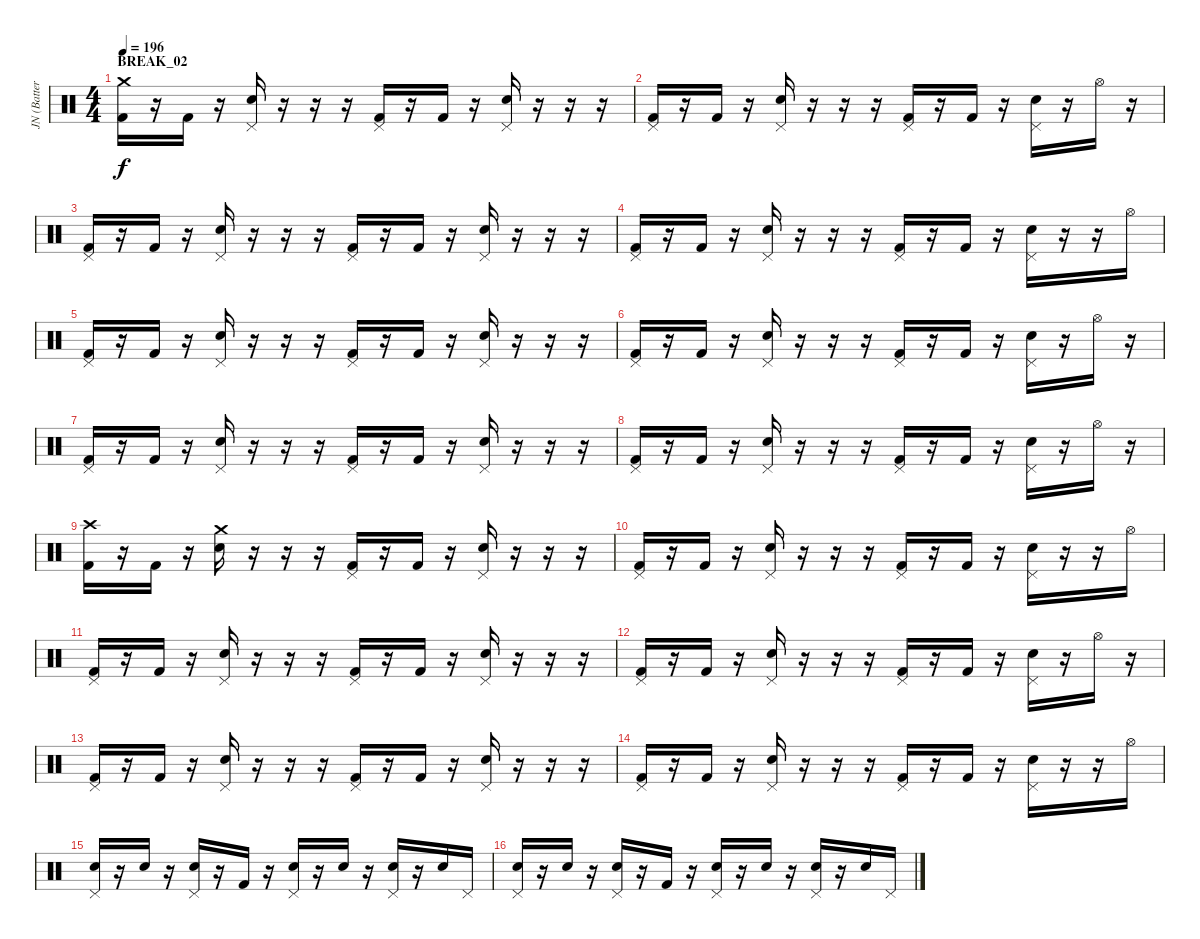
\track ("JN (Batterie)" "JN (Batter") {instrument percussion}
\staff {score}
\articulation defaults
\ts (4 4)
\section ("" "BREAK_02")
\tempo 196
\clef neutral
\ks c
("Crash medium (hit)" "Kick (hit) 2").16{dy f} r.16 "Kick (hit) 2".16 r.16 ("Pedal Hi-Hat (hit)" "Electric Snare (hit)").16 r.16 r.16 r.16 ("Pedal Hi-Hat (hit)" "Kick (hit) 2").16 r.16 "Kick (hit) 2".16 r.16 ("Pedal Hi-Hat (hit)" "Electric Snare (hit)").16 r.16 r.16 r.16 |
("Pedal Hi-Hat (hit)" "Kick (hit) 2").16 r.16 "Kick (hit) 2".16 r.16 ("Pedal Hi-Hat (hit)" "Electric Snare (hit)").16 r.16 r.16 r.16 ("Pedal Hi-Hat (hit)" "Kick (hit) 2").16 r.16 "Kick (hit) 2".16 r.16 ("Pedal Hi-Hat (hit)" "Electric Snare (hit)").16 r.16 "Hi-Hat (open)".16 r.16 |
("Pedal Hi-Hat (hit)" "Kick (hit) 2").16 r.16 "Kick (hit) 2".16 r.16 ("Pedal Hi-Hat (hit)" "Electric Snare (hit)").16 r.16 r.16 r.16 ("Pedal Hi-Hat (hit)" "Kick (hit) 2").16 r.16 "Kick (hit) 2".16 r.16 ("Pedal Hi-Hat (hit)" "Electric Snare (hit)").16 r.16 r.16 r.16 |
("Pedal Hi-Hat (hit)" "Kick (hit) 2").16 r.16 "Kick (hit) 2".16 r.16 ("Pedal Hi-Hat (hit)" "Electric Snare (hit)").16 r.16 r.16 r.16 ("Pedal Hi-Hat (hit)" "Kick (hit) 2").16 r.16 "Kick (hit) 2".16 r.16 ("Pedal Hi-Hat (hit)" "Electric Snare (hit)").16 r.16 r.16 "Hi-Hat (open)".16 |
("Pedal Hi-Hat (hit)" "Kick (hit) 2").16 r.16 "Kick (hit) 2".16 r.16 ("Pedal Hi-Hat (hit)" "Electric Snare (hit)").16 r.16 r.16 r.16 ("Pedal Hi-Hat (hit)" "Kick (hit) 2").16 r.16 "Kick (hit) 2".16 r.16 ("Pedal Hi-Hat (hit)" "Electric Snare (hit)").16 r.16 r.16 r.16 |
("Pedal Hi-Hat (hit)" "Kick (hit) 2").16 r.16 "Kick (hit) 2".16 r.16 ("Pedal Hi-Hat (hit)" "Electric Snare (hit)").16 r.16 r.16 r.16 ("Pedal Hi-Hat (hit)" "Kick (hit) 2").16 r.16 "Kick (hit) 2".16 r.16 ("Pedal Hi-Hat (hit)" "Electric Snare (hit)").16 r.16 "Hi-Hat (open)".16 r.16 |
("Pedal Hi-Hat (hit)" "Kick (hit) 2").16 r.16 "Kick (hit) 2".16 r.16 ("Pedal Hi-Hat (hit)" "Electric Snare (hit)").16 r.16 r.16 r.16 ("Pedal Hi-Hat (hit)" "Kick (hit) 2").16 r.16 "Kick (hit) 2".16 r.16 ("Pedal Hi-Hat (hit)" "Electric Snare (hit)").16 r.16 r.16 r.16 |
("Pedal Hi-Hat (hit)" "Kick (hit) 2").16 r.16 "Kick (hit) 2".16 r.16 ("Pedal Hi-Hat (hit)" "Electric Snare (hit)").16 r.16 r.16 r.16 ("Pedal Hi-Hat (hit)" "Kick (hit) 2").16 r.16 "Kick (hit) 2".16 r.16 ("Pedal Hi-Hat (hit)" "Electric Snare (hit)").16 r.16 "Hi-Hat (open)".16 r.16 |
("Crash high (hit)" "Kick (hit) 2").16 r.16 "Kick (hit) 2".16 r.16 ("Crash medium (hit)" "Electric Snare (hit)").16 r.16 r.16 r.16 ("Pedal Hi-Hat (hit)" "Kick (hit) 2").16 r.16 "Kick (hit) 2".16 r.16 ("Pedal Hi-Hat (hit)" "Electric Snare (hit)").16 r.16 r.16 r.16 |
("Pedal Hi-Hat (hit)" "Kick (hit) 2").16 r.16 "Kick (hit) 2".16 r.16 ("Pedal Hi-Hat (hit)" "Electric Snare (hit)").16 r.16 r.16 r.16 ("Pedal Hi-Hat (hit)" "Kick (hit) 2").16 r.16 "Kick (hit) 2".16 r.16 ("Pedal Hi-Hat (hit)" "Electric Snare (hit)").16 r.16 r.16 "Hi-Hat (open)".16 |
("Pedal Hi-Hat (hit)" "Kick (hit) 2").16 r.16 "Kick (hit) 2".16 r.16 ("Pedal Hi-Hat (hit)" "Electric Snare (hit)").16 r.16 r.16 r.16 ("Pedal Hi-Hat (hit)" "Kick (hit) 2").16 r.16 "Kick (hit) 2".16 r.16 ("Pedal Hi-Hat (hit)" "Electric Snare (hit)").16 r.16 r.16 r.16 |
("Pedal Hi-Hat (hit)" "Kick (hit) 2").16 r.16 "Kick (hit) 2".16 r.16 ("Pedal Hi-Hat (hit)" "Electric Snare (hit)").16 r.16 r.16 r.16 ("Pedal Hi-Hat (hit)" "Kick (hit) 2").16 r.16 "Kick (hit) 2".16 r.16 ("Pedal Hi-Hat (hit)" "Electric Snare (hit)").16 r.16 "Hi-Hat (open)".16 r.16 |
("Pedal Hi-Hat (hit)" "Kick (hit) 2").16 r.16 "Kick (hit) 2".16 r.16 ("Pedal Hi-Hat (hit)" "Electric Snare (hit)").16 r.16 r.16 r.16 ("Pedal Hi-Hat (hit)" "Kick (hit) 2").16 r.16 "Kick (hit) 2".16 r.16 ("Pedal Hi-Hat (hit)" "Electric Snare (hit)").16 r.16 r.16 r.16 |
("Pedal Hi-Hat (hit)" "Kick (hit) 2").16 r.16 "Kick (hit) 2".16 r.16 ("Pedal Hi-Hat (hit)" "Electric Snare (hit)").16 r.16 r.16 r.16 ("Pedal Hi-Hat (hit)" "Kick (hit) 2").16 r.16 "Kick (hit) 2".16 r.16 ("Pedal Hi-Hat (hit)" "Electric Snare (hit)").16 r.16 r.16 "Hi-Hat (open)".16 |
("Pedal Hi-Hat (hit)" "Electric Snare (hit)").16 r.16 "Electric Snare (hit)".16 r.16 ("Pedal Hi-Hat (hit)" "Electric Snare (hit)").16 r.16 "Kick (hit) 2".16 r.16 ("Pedal Hi-Hat (hit)" "Electric Snare (hit)").16 r.16 "Electric Snare (hit)".16 r.16 ("Pedal Hi-Hat (hit)" "Electric Snare (hit)").16 r.16 "Electric Snare (hit)".16 "Pedal Hi-Hat (hit)".16 |
("Pedal Hi-Hat (hit)" "Electric Snare (hit)").16 r.16 "Electric Snare (hit)".16 r.16 ("Pedal Hi-Hat (hit)" "Electric Snare (hit)").16 r.16 "Kick (hit) 2".16 r.16 ("Pedal Hi-Hat (hit)" "Electric Snare (hit)").16 r.16 "Electric Snare (hit)".16 r.16 ("Pedal Hi-Hat (hit)" "Electric Snare (hit)").16 r.16 "Electric Snare (hit)".16 "Pedal Hi-Hat (hit)".16
